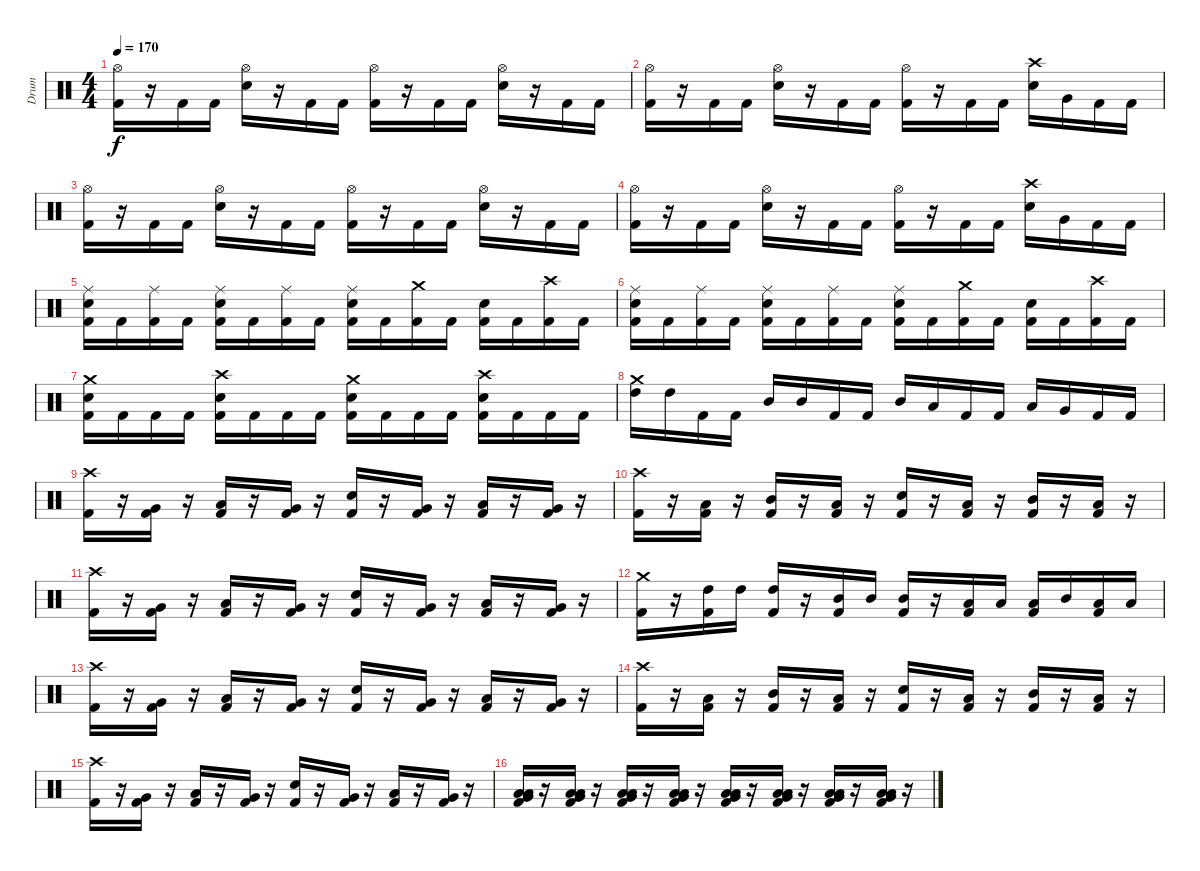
\track ("Drum" "Drum") {instrument percussion}
\staff {score}
\articulation defaults
\ts (4 4)
\tempo 170
\clef neutral
\ks c
("Kick (hit) 2" "Hi-Hat (open)").16{dy f} r.16 "Kick (hit) 2".16 "Kick (hit) 2".16 ("Electric Snare (hit)" "Hi-Hat (open)").16 r.16 "Kick (hit) 2".16 "Kick (hit) 2".16 ("Kick (hit) 2" "Hi-Hat (open)").16 r.16 "Kick (hit) 2".16 "Kick (hit) 2".16 ("Electric Snare (hit)" "Hi-Hat (open)").16 r.16 "Kick (hit) 2".16 "Kick (hit) 2".16 |
("Kick (hit) 2" "Hi-Hat (open)").16 r.16 "Kick (hit) 2".16 "Kick (hit) 2".16 ("Electric Snare (hit)" "Hi-Hat (open)").16 r.16 "Kick (hit) 2".16 "Kick (hit) 2".16 ("Kick (hit) 2" "Hi-Hat (open)").16 r.16 "Kick (hit) 2".16 "Kick (hit) 2".16 ("Electric Snare (hit)" "Crash high (hit)").16 "Very Low Tom (hit)".16 "Kick (hit) 2".16 "Kick (hit) 2".16 |
("Kick (hit) 2" "Hi-Hat (open)").16 r.16 "Kick (hit) 2".16 "Kick (hit) 2".16 ("Electric Snare (hit)" "Hi-Hat (open)").16 r.16 "Kick (hit) 2".16 "Kick (hit) 2".16 ("Kick (hit) 2" "Hi-Hat (open)").16 r.16 "Kick (hit) 2".16 "Kick (hit) 2".16 ("Electric Snare (hit)" "Hi-Hat (open)").16 r.16 "Kick (hit) 2".16 "Kick (hit) 2".16 |
("Kick (hit) 2" "Hi-Hat (open)").16 r.16 "Kick (hit) 2".16 "Kick (hit) 2".16 ("Electric Snare (hit)" "Hi-Hat (open)").16 r.16 "Kick (hit) 2".16 "Kick (hit) 2".16 ("Kick (hit) 2" "Hi-Hat (open)").16 r.16 "Kick (hit) 2".16 "Kick (hit) 2".16 ("Electric Snare (hit)" "Crash high (hit)").16 "Very Low Tom (hit)".16 "Kick (hit) 2".16 "Kick (hit) 2".16 |
("Electric Snare (hit)" "Kick (hit) 2" "Ride (middle)").16 "Kick (hit) 2".16 ("Kick (hit) 2" "Ride (middle)").16 "Kick (hit) 2".16 ("Electric Snare (hit)" "Kick (hit) 2" "Ride (middle)").16 "Kick (hit) 2".16 ("Kick (hit) 2" "Ride (middle)").16 "Kick (hit) 2".16 ("Kick (hit) 2" "Electric Snare (hit)" "Ride (middle)").16 "Kick (hit) 2".16 ("Kick (hit) 2" "Crash medium (hit)").16 "Kick (hit) 2".16 ("Kick (hit) 2" "Electric Snare (hit)").16 "Kick (hit) 2".16 ("Kick (hit) 2" "Crash high (hit)").16 "Kick (hit) 2".16 |
("Kick (hit) 2" "Electric Snare (hit)" "Ride (middle)").16 "Kick (hit) 2".16 ("Kick (hit) 2" "Ride (middle)").16 "Kick (hit) 2".16 ("Electric Snare (hit)" "Kick (hit) 2" "Ride (middle)").16 "Kick (hit) 2".16 ("Kick (hit) 2" "Ride (middle)").16 "Kick (hit) 2".16 ("Kick (hit) 2" "Electric Snare (hit)" "Ride (middle)").16 "Kick (hit) 2".16 ("Kick (hit) 2" "Crash medium (hit)").16 "Kick (hit) 2".16 ("Kick (hit) 2" "Electric Snare (hit)").16 "Kick (hit) 2".16 ("Kick (hit) 2" "Crash high (hit)").16 "Kick (hit) 2".16 |
("Kick (hit) 2" "Electric Snare (hit)" "Crash medium (hit)").16 "Kick (hit) 2".16 "Kick (hit) 2".16 "Kick (hit) 2".16 ("Electric Snare (hit)" "Kick (hit) 2" "Crash high (hit)").16 "Kick (hit) 2".16 "Kick (hit) 2".16 "Kick (hit) 2".16 ("Kick (hit) 2" "Electric Snare (hit)" "Crash medium (hit)").16 "Kick (hit) 2".16 "Kick (hit) 2".16 "Kick (hit) 2".16 ("Electric Snare (hit)" "Kick (hit) 2" "Crash high (hit)").16 "Kick (hit) 2".16 "Kick (hit) 2".16 "Kick (hit) 2".16 |
("High Tom (hit)" "Crash medium (hit)").16 "High Tom (hit)".16 "Kick (hit) 2".16 "Kick (hit) 2".16 "Mid Tom (hit)".16 "Mid Tom (hit)".16 "Kick (hit) 2".16 "Kick (hit) 2".16 "Mid Tom (hit)".16 "Low Tom (hit)".16 "Kick (hit) 2".16 "Kick (hit) 2".16 "Low Tom (hit)".16 "Very Low Tom (hit)".16 "Kick (hit) 2".16 "Kick (hit) 2".16 |
("Kick (hit) 2" "Crash high (hit)").16 r.16 ("Kick (hit) 2" "Very Low Tom (hit)").16 r.16 ("Kick (hit) 2" "Low Tom (hit)").16 r.16 ("Kick (hit) 2" "Very Low Tom (hit)").16 r.16 ("Kick (hit) 2" "Electric Snare (hit)").16 r.16 ("Kick (hit) 2" "Very Low Tom (hit)").16 r.16 ("Kick (hit) 2" "Low Tom (hit)").16 r.16 ("Kick (hit) 2" "Very Low Tom (hit)").16 r.16 |
("Kick (hit) 2" "Crash high (hit)").16 r.16 ("Kick (hit) 2" "Low Tom (hit)").16 r.16 ("Kick (hit) 2" "Mid Tom (hit)").16 r.16 ("Kick (hit) 2" "Low Tom (hit)").16 r.16 ("Kick (hit) 2" "Electric Snare (hit)").16 r.16 ("Kick (hit) 2" "Low Tom (hit)").16 r.16 ("Kick (hit) 2" "Mid Tom (hit)").16 r.16 ("Kick (hit) 2" "Low Tom (hit)").16 r.16 |
("Kick (hit) 2" "Crash high (hit)").16 r.16 ("Kick (hit) 2" "Very Low Tom (hit)").16 r.16 ("Kick (hit) 2" "Low Tom (hit)").16 r.16 ("Kick (hit) 2" "Very Low Tom (hit)").16 r.16 ("Electric Snare (hit)" "Kick (hit) 2").16 r.16 ("Kick (hit) 2" "Very Low Tom (hit)").16 r.16 ("Kick (hit) 2" "Low Tom (hit)").16 r.16 ("Kick (hit) 2" "Very Low Tom (hit)").16 r.16 |
("Kick (hit) 2" "Crash medium (hit)").16 r.16 ("Kick (hit) 2" "High Tom (hit)").16 "High Tom (hit)".16 ("Kick (hit) 2" "High Tom (hit)").16 r.16 ("Kick (hit) 2" "Mid Tom (hit)").16 "Mid Tom (hit)".16 ("Kick (hit) 2" "Mid Tom (hit)").16 r.16 ("Kick (hit) 2" "Low Tom (hit)").16 "Low Tom (hit)".16 ("Kick (hit) 2" "Low Tom (hit)").16 "Mid Tom (hit)".16 ("Kick (hit) 2" "Low Tom (hit)").16 "Low Floor Tom (hit)".16 |
("Kick (hit) 2" "Crash high (hit)").16 r.16 ("Kick (hit) 2" "Very Low Tom (hit)").16 r.16 ("Kick (hit) 2" "Low Tom (hit)").16 r.16 ("Kick (hit) 2" "Very Low Tom (hit)").16 r.16 ("Kick (hit) 2" "Electric Snare (hit)").16 r.16 ("Kick (hit) 2" "Very Low Tom (hit)").16 r.16 ("Kick (hit) 2" "Low Tom (hit)").16 r.16 ("Kick (hit) 2" "Very Low Tom (hit)").16 r.16 |
("Kick (hit) 2" "Crash high (hit)").16 r.16 ("Kick (hit) 2" "Low Tom (hit)").16 r.16 ("Kick (hit) 2" "Mid Tom (hit)").16 r.16 ("Kick (hit) 2" "Low Tom (hit)").16 r.16 ("Kick (hit) 2" "Electric Snare (hit)").16 r.16 ("Kick (hit) 2" "Low Tom (hit)").16 r.16 ("Kick (hit) 2" "Mid Tom (hit)").16 r.16 ("Kick (hit) 2" "Low Tom (hit)").16 r.16 |
("Kick (hit) 2" "Crash high (hit)").16 r.16 ("Kick (hit) 2" "Very Low Tom (hit)").16 r.16 ("Kick (hit) 2" "Low Tom (hit)").16 r.16 ("Kick (hit) 2" "Very Low Tom (hit)").16 r.16 ("Electric Snare (hit)" "Kick (hit) 2").16 r.16 ("Kick (hit) 2" "Very Low Tom (hit)").16 r.16 ("Kick (hit) 2" "Low Tom (hit)").16 r.16 ("Kick (hit) 2" "Very Low Tom (hit)").16 r.16 |
("Kick (hit) 2" "Low Tom (hit)" "Very Low Tom (hit)" "Low Floor Tom (hit)").16 r.16 ("Kick (hit) 2" "Low Tom (hit)" "Very Low Tom (hit)" "Low Floor Tom (hit)").16 r.16 ("Kick (hit) 2" "Very Low Tom (hit)" "Low Tom (hit)" "Low Floor Tom (hit)").16 r.16 ("Kick (hit) 2" "Very Low Tom (hit)" "Low Floor Tom (hit)" "Low Tom (hit)").16 r.16 ("Kick (hit) 2" "Low Tom (hit)" "Low Floor Tom (hit)" "Very Low Tom (hit)").16 r.16 ("Kick (hit) 2" "Very Low Tom (hit)" "Low Floor Tom (hit)" "Low Tom (hit)").16 r.16 ("Kick (hit) 2" "Low Tom (hit)" "Very Low Tom (hit)" "Low Floor Tom (hit)").16 r.16 ("Kick (hit) 2" "Low Tom (hit)" "Low Floor Tom (hit)" "Very Low Tom (hit)").16 r.16
